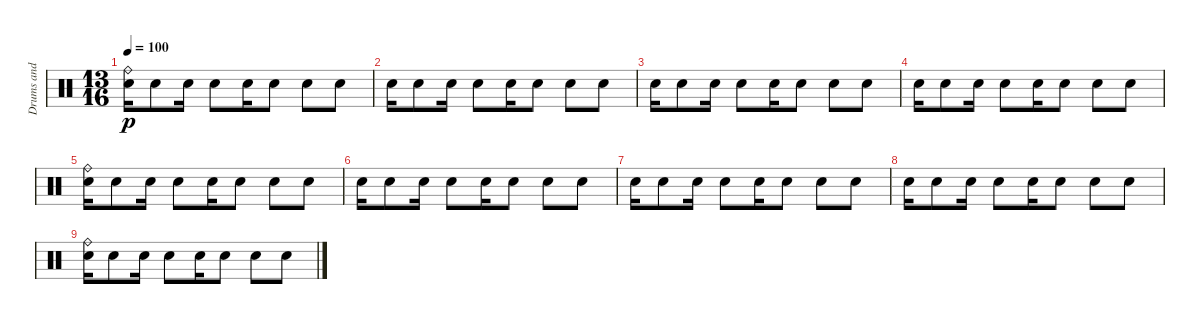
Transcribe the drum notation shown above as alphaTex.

\track ("Drums and FX" "Drums and ") {instrument percussion}
\staff {score}
\articulation defaults
\ts (13 16)
\tempo 100
\clef neutral
\ks c
("Ride (bell)" "Electric Snare (hit)").16{dy p} "Electric Snare (hit)".8 "Electric Snare (hit)".16 "Electric Snare (hit)".8 "Electric Snare (hit)".16 "Electric Snare (hit)".8 "Electric Snare (hit)".8 "Electric Snare (hit)".8 |
"Electric Snare (hit)".16 "Electric Snare (hit)".8 "Electric Snare (hit)".16 "Electric Snare (hit)".8 "Electric Snare (hit)".16 "Electric Snare (hit)".8 "Electric Snare (hit)".8 "Electric Snare (hit)".8 |
"Electric Snare (hit)".16 "Electric Snare (hit)".8 "Electric Snare (hit)".16 "Electric Snare (hit)".8 "Electric Snare (hit)".16 "Electric Snare (hit)".8 "Electric Snare (hit)".8 "Electric Snare (hit)".8 |
"Electric Snare (hit)".16 "Electric Snare (hit)".8 "Electric Snare (hit)".16 "Electric Snare (hit)".8 "Electric Snare (hit)".16 "Electric Snare (hit)".8 "Electric Snare (hit)".8 "Electric Snare (hit)".8 |
("Ride (bell)" "Electric Snare (hit)").16{volume 0} "Electric Snare (hit)".8 "Electric Snare (hit)".16 "Electric Snare (hit)".8 "Electric Snare (hit)".16 "Electric Snare (hit)".8 "Electric Snare (hit)".8 "Electric Snare (hit)".8 |
"Electric Snare (hit)".16 "Electric Snare (hit)".8 "Electric Snare (hit)".16 "Electric Snare (hit)".8 "Electric Snare (hit)".16 "Electric Snare (hit)".8 "Electric Snare (hit)".8 "Electric Snare (hit)".8 |
"Electric Snare (hit)".16 "Electric Snare (hit)".8 "Electric Snare (hit)".16 "Electric Snare (hit)".8 "Electric Snare (hit)".16 "Electric Snare (hit)".8 "Electric Snare (hit)".8 "Electric Snare (hit)".8 |
"Electric Snare (hit)".16 "Electric Snare (hit)".8 "Electric Snare (hit)".16 "Electric Snare (hit)".8 "Electric Snare (hit)".16 "Electric Snare (hit)".8 "Electric Snare (hit)".8 "Electric Snare (hit)".8 |
("Ride (bell)" "Electric Snare (hit)").16 "Electric Snare (hit)".8 "Electric Snare (hit)".16 "Electric Snare (hit)".8 "Electric Snare (hit)".16 "Electric Snare (hit)".8 "Electric Snare (hit)".8 "Electric Snare (hit)".8
